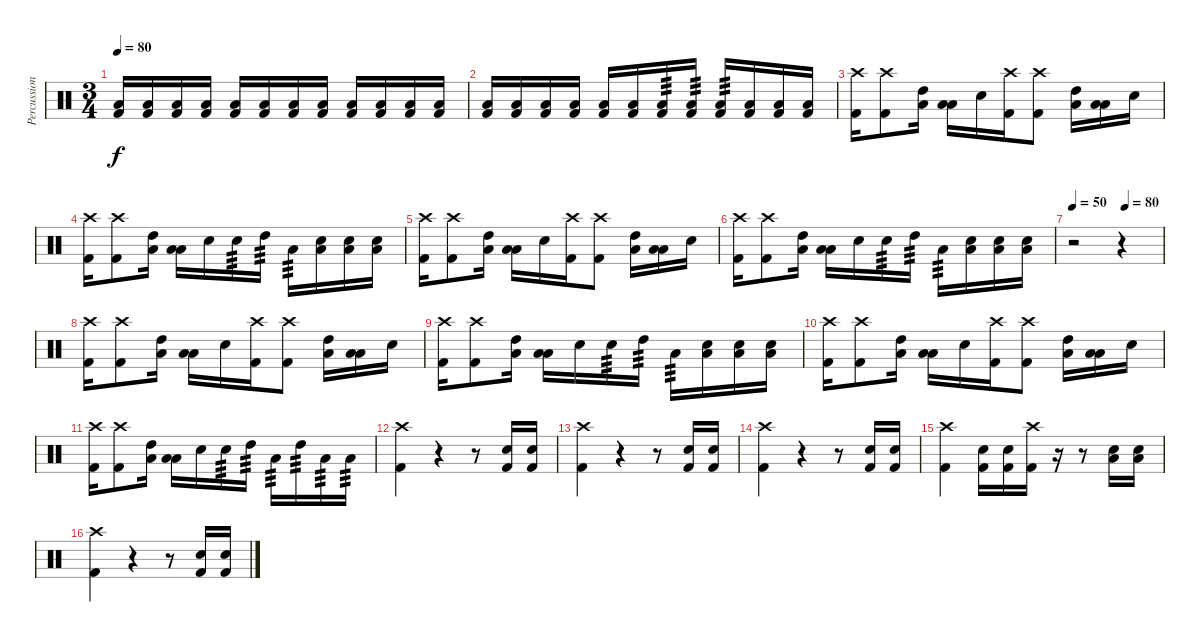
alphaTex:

\track ("Percussion" "Percussion") {instrument percussion}
\staff {score}
\articulation defaults
\ts (3 4)
\tempo 80
\clef neutral
\ks c
("Low Floor Tom (hit)" "Kick (hit) 2").16{dy f} ("Low Floor Tom (hit)" "Kick (hit) 2").16 ("Low Floor Tom (hit)" "Kick (hit) 2").16 ("Low Floor Tom (hit)" "Kick (hit) 2").16 ("Low Floor Tom (hit)" "Kick (hit) 2").16 ("Low Floor Tom (hit)" "Kick (hit) 2").16 ("Low Floor Tom (hit)" "Kick (hit) 2").16 ("Low Floor Tom (hit)" "Kick (hit) 2").16 ("Low Floor Tom (hit)" "Kick (hit) 2").16 ("Low Floor Tom (hit)" "Kick (hit) 2").16 ("Low Floor Tom (hit)" "Kick (hit) 2").16 ("Low Floor Tom (hit)" "Kick (hit) 2").16 |
("Low Floor Tom (hit)" "Kick (hit) 2").16 ("Low Floor Tom (hit)" "Kick (hit) 2").16 ("Low Floor Tom (hit)" "Kick (hit) 2").16 ("Low Floor Tom (hit)" "Kick (hit) 2").16 ("Low Floor Tom (hit)" "Kick (hit) 2").16 ("Low Floor Tom (hit)" "Kick (hit) 2").16 ("Low Floor Tom (hit)" "Kick (hit) 2").16{tp 3} ("Low Floor Tom (hit)" "Kick (hit) 2").16{tp 3} ("Low Floor Tom (hit)" "Kick (hit) 2").16{tp 3} ("Low Floor Tom (hit)" "Kick (hit) 2").16 ("Low Floor Tom (hit)" "Kick (hit) 2").16 ("Low Floor Tom (hit)" "Kick (hit) 2").16 |
("Crash high (hit)" "Kick (hit) 2").16 ("Crash high (hit)" "Kick (hit) 2").8 ("High Tom (hit)" "Low Tom (hit)").16 ("Low Tom (hit)" "Low Floor Tom (hit)").16 "Electric Snare (hit)".16 ("Crash high (hit)" "Kick (hit) 2").16 ("Crash high (hit)" "Kick (hit) 2").8 ("High Tom (hit)" "Low Tom (hit)").16 ("Low Tom (hit)" "Low Floor Tom (hit)").16 "Electric Snare (hit)".16 |
("Crash high (hit)" "Kick (hit) 2").16 ("Crash high (hit)" "Kick (hit) 2").8 ("High Tom (hit)" "Low Tom (hit)").16 ("Low Tom (hit)" "Low Floor Tom (hit)").16 "Electric Snare (hit)".16 "Electric Snare (hit)".16{tp 3} "High Tom (hit)".16{tp 3} "Low Tom (hit)".16{tp 3} ("Electric Snare (hit)" "Low Floor Tom (hit)").16 ("Electric Snare (hit)" "Low Floor Tom (hit)").16 ("Electric Snare (hit)" "Low Floor Tom (hit)").16 |
("Crash high (hit)" "Kick (hit) 2").16 ("Crash high (hit)" "Kick (hit) 2").8 ("High Tom (hit)" "Low Tom (hit)").16 ("Low Tom (hit)" "Low Floor Tom (hit)").16 "Electric Snare (hit)".16 ("Crash high (hit)" "Kick (hit) 2").16 ("Crash high (hit)" "Kick (hit) 2").8 ("High Tom (hit)" "Low Tom (hit)").16 ("Low Tom (hit)" "Low Floor Tom (hit)").16 "Electric Snare (hit)".16 |
("Crash high (hit)" "Kick (hit) 2").16 ("Crash high (hit)" "Kick (hit) 2").8 ("High Tom (hit)" "Low Tom (hit)").16 ("Low Tom (hit)" "Low Floor Tom (hit)").16 "Electric Snare (hit)".16 "Electric Snare (hit)".16{tp 3} "High Tom (hit)".16{tp 3} "Low Tom (hit)".16{tp 3} ("Electric Snare (hit)" "Low Floor Tom (hit)").16 ("Electric Snare (hit)" "Low Floor Tom (hit)").16 ("Electric Snare (hit)" "Low Floor Tom (hit)").16 |
\tempo 50
\tempo (80 0.5833333333333334)
r.2 r.4 |
("Crash high (hit)" "Kick (hit) 2").16 ("Crash high (hit)" "Kick (hit) 2").8 ("High Tom (hit)" "Low Tom (hit)").16 ("Low Tom (hit)" "Low Floor Tom (hit)").16 "Electric Snare (hit)".16 ("Crash high (hit)" "Kick (hit) 2").16 ("Crash high (hit)" "Kick (hit) 2").8 ("High Tom (hit)" "Low Tom (hit)").16 ("Low Tom (hit)" "Low Floor Tom (hit)").16 "Electric Snare (hit)".16 |
("Crash high (hit)" "Kick (hit) 2").16 ("Crash high (hit)" "Kick (hit) 2").8 ("High Tom (hit)" "Low Tom (hit)").16 ("Low Tom (hit)" "Low Floor Tom (hit)").16 "Electric Snare (hit)".16 "Electric Snare (hit)".16{tp 3} "High Tom (hit)".16{tp 3} "Low Tom (hit)".16{tp 3} ("Electric Snare (hit)" "Low Floor Tom (hit)").16 ("Electric Snare (hit)" "Low Floor Tom (hit)").16 ("Electric Snare (hit)" "Low Floor Tom (hit)").16 |
("Crash high (hit)" "Kick (hit) 2").16 ("Crash high (hit)" "Kick (hit) 2").8 ("High Tom (hit)" "Low Tom (hit)").16 ("Low Tom (hit)" "Low Floor Tom (hit)").16 "Electric Snare (hit)".16 ("Crash high (hit)" "Kick (hit) 2").16 ("Crash high (hit)" "Kick (hit) 2").8 ("High Tom (hit)" "Low Tom (hit)").16 ("Low Tom (hit)" "Low Floor Tom (hit)").16 "Electric Snare (hit)".16 |
("Crash high (hit)" "Kick (hit) 2").16 ("Crash high (hit)" "Kick (hit) 2").8 ("High Tom (hit)" "Low Tom (hit)").16 ("Low Tom (hit)" "Low Floor Tom (hit)").16 "Electric Snare (hit)".16 "Electric Snare (hit)".16{tp 3} "High Tom (hit)".16{tp 3} "Low Tom (hit)".16{tp 3} "High Tom (hit)".16{tp 3} "Low Tom (hit)".16{tp 3} "Low Floor Tom (hit)".16{tp 3} |
("Crash high (hit)" "Kick (hit) 2").4 r.4 r.8 ("Electric Snare (hit)" "Kick (hit) 2").16 ("Electric Snare (hit)" "Kick (hit) 2").16 |
("Crash high (hit)" "Kick (hit) 2").4 r.4 r.8 ("Electric Snare (hit)" "Kick (hit) 2").16 ("Electric Snare (hit)" "Kick (hit) 2").16 |
("Crash high (hit)" "Kick (hit) 2").4 r.4 r.8 ("Electric Snare (hit)" "Kick (hit) 2").16 ("Electric Snare (hit)" "Kick (hit) 2").16 |
("Crash high (hit)" "Kick (hit) 2").4 ("Electric Snare (hit)" "Kick (hit) 2").16 ("Electric Snare (hit)" "Kick (hit) 2").16 ("Crash high (hit)" "Kick (hit) 2").16 r.16 r.8 ("Low Floor Tom (hit)" "Electric Snare (hit)").16 ("Low Floor Tom (hit)" "Electric Snare (hit)").16 |
("Crash high (hit)" "Kick (hit) 2").4 r.4 r.8 ("Electric Snare (hit)" "Kick (hit) 2").16 ("Electric Snare (hit)" "Kick (hit) 2").16
